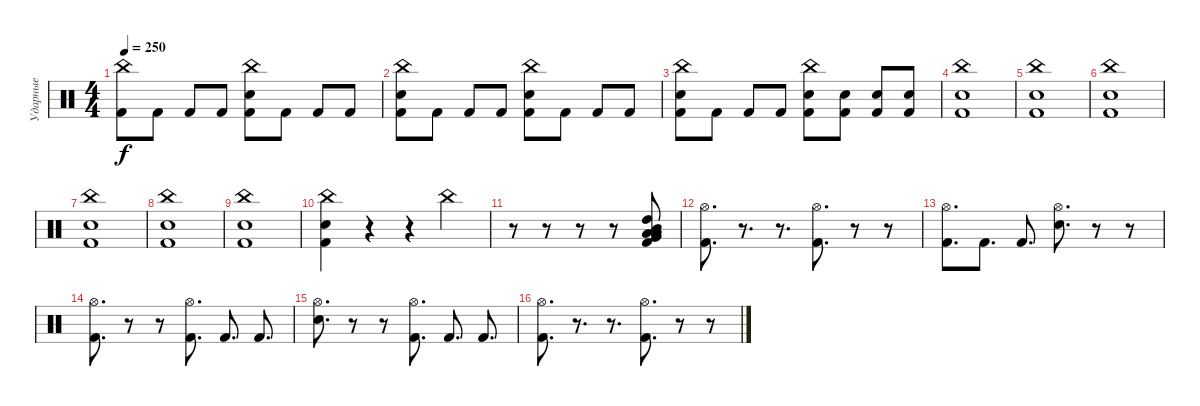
\track ("Ударные" "Ударные") {instrument percussion}
\staff {score}
\articulation defaults
\ts (4 4)
\tempo 250
\clef neutral
\ks c
("China (hit)" "Kick (hit) 2").8{dy f} "Kick (hit) 2".8 "Kick (hit) 2".8 "Kick (hit) 2".8 ("China (hit)" "Snare (hit) 2" "Kick (hit) 2").8 "Kick (hit) 2".8 "Kick (hit) 2".8 "Kick (hit) 2".8 |
("China (hit)" "Snare (hit) 2" "Kick (hit) 2").8 "Kick (hit) 2".8 "Kick (hit) 2".8 "Kick (hit) 2".8 ("China (hit)" "Snare (hit) 2" "Kick (hit) 2").8 "Kick (hit) 2".8 "Kick (hit) 2".8 "Kick (hit) 2".8 |
("China (hit)" "Snare (hit) 2" "Kick (hit) 2").8 "Kick (hit) 2".8 "Kick (hit) 2".8 "Kick (hit) 2".8 ("China (hit)" "Snare (hit) 2" "Kick (hit) 2").8 ("Snare (hit) 2" "Kick (hit) 2").8 ("Snare (hit) 2" "Kick (hit) 2").8 ("Snare (hit) 2" "Kick (hit) 2").8 |
("Kick (hit) 2" "China (hit)" "Snare (hit) 2").1 |
("Kick (hit) 2" "China (hit)" "Snare (hit) 2").1 |
("Kick (hit) 2" "China (hit)" "Snare (hit) 2").1 |
("Kick (hit) 2" "China (hit)" "Snare (hit) 2").1 |
("Kick (hit) 2" "China (hit)" "Snare (hit) 2").1 |
("Kick (hit) 2" "China (hit)" "Snare (hit) 2").1 |
("Kick (hit) 2" "China (hit)" "Snare (hit) 2").4 r.4 r.4 "China (hit)".4 |
r.8 r.8 r.8 r.8 ("Kick (hit) 2" "High Tom (hit)" "Low Floor Tom (hit)" "Very Low Tom (hit)" "Low Tom (hit)" "Mid Tom (hit)").8 |
("Hi-Hat (open)" "Kick (hit) 2").8{d} r.8{d} r.8{d} ("Hi-Hat (open)" "Kick (hit) 2").8{d} r.8 r.8 |
("Hi-Hat (open)" "Kick (hit) 2").8{d} "Kick (hit) 2".8{d} "Kick (hit) 2".8{d} ("Hi-Hat (open)" "Electric Snare (hit)").8{d} r.8 r.8 |
("Hi-Hat (open)" "Kick (hit) 2").8{d} r.8 r.8 ("Hi-Hat (open)" "Kick (hit) 2").8{d} "Kick (hit) 2".8{d} "Kick (hit) 2".8{d} |
("Hi-Hat (open)" "Electric Snare (hit)").8{d} r.8 r.8 ("Hi-Hat (open)" "Kick (hit) 2").8{d} "Kick (hit) 2".8{d} "Kick (hit) 2".8{d} |
("Hi-Hat (open)" "Kick (hit) 2").8{d} r.8{d} r.8{d} ("Hi-Hat (open)" "Kick (hit) 2").8{d} r.8 r.8
